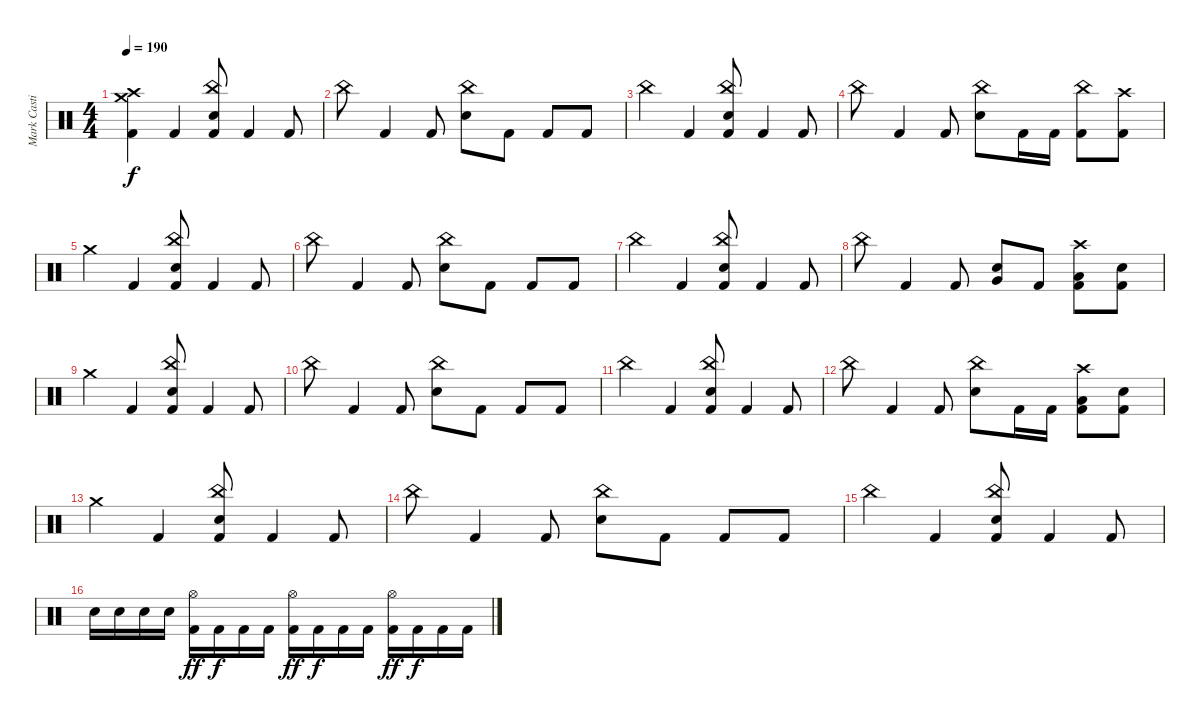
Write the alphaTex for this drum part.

\track ("Mark Castillo" "Mark Casti") {instrument percussion}
\staff {score}
\articulation defaults
\ts (4 4)
\tempo 190
\clef neutral
\ks c
("Crash high (hit)" "Crash medium (hit)" "Kick (hit) 2").4{dy f} "Kick (hit) 2".4 ("China (hit)" "Electric Snare (hit)" "Kick (hit) 2").8 "Kick (hit) 2".4 "Kick (hit) 2".8 |
"China (hit)".8 "Kick (hit) 2".4 "Kick (hit) 2".8 ("China (hit)" "Electric Snare (hit)").8 "Kick (hit) 2".8 "Kick (hit) 2".8 "Kick (hit) 2".8 |
"China (hit)".4 "Kick (hit) 2".4 ("China (hit)" "Electric Snare (hit)" "Kick (hit) 2").8 "Kick (hit) 2".4 "Kick (hit) 2".8 |
"China (hit)".8 "Kick (hit) 2".4 "Kick (hit) 2".8 ("China (hit)" "Electric Snare (hit)").8 "Kick (hit) 2".16 "Kick (hit) 2".16 ("China (hit)" "Kick (hit) 2").8 ("Crash high (hit)" "Kick (hit) 2").8 |
"Crash medium (hit)".4 "Kick (hit) 2".4 ("China (hit)" "Electric Snare (hit)" "Kick (hit) 2").8 "Kick (hit) 2".4 "Kick (hit) 2".8 |
"China (hit)".8 "Kick (hit) 2".4 "Kick (hit) 2".8 ("China (hit)" "Electric Snare (hit)").8 "Kick (hit) 2".8 "Kick (hit) 2".8 "Kick (hit) 2".8 |
"China (hit)".4 "Kick (hit) 2".4 ("China (hit)" "Electric Snare (hit)" "Kick (hit) 2").8 "Kick (hit) 2".4 "Kick (hit) 2".8 |
"China (hit)".8 "Kick (hit) 2".4 "Kick (hit) 2".8 ("Very Low Tom (hit)" "Electric Snare (hit)").8 "Kick (hit) 2".8 ("Crash high (hit)" "Low Tom (hit)" "Kick (hit) 2").8 ("Electric Snare (hit)" "Kick (hit) 2").8 |
"Crash medium (hit)".4 "Kick (hit) 2".4 ("China (hit)" "Electric Snare (hit)" "Kick (hit) 2").8 "Kick (hit) 2".4 "Kick (hit) 2".8 |
"China (hit)".8 "Kick (hit) 2".4 "Kick (hit) 2".8 ("China (hit)" "Electric Snare (hit)").8 "Kick (hit) 2".8 "Kick (hit) 2".8 "Kick (hit) 2".8 |
"China (hit)".4 "Kick (hit) 2".4 ("China (hit)" "Electric Snare (hit)" "Kick (hit) 2").8 "Kick (hit) 2".4 "Kick (hit) 2".8 |
"China (hit)".8 "Kick (hit) 2".4 "Kick (hit) 2".8 ("China (hit)" "Electric Snare (hit)").8 "Kick (hit) 2".16 "Kick (hit) 2".16 ("Crash high (hit)" "Low Tom (hit)" "Kick (hit) 2").8 ("Electric Snare (hit)" "Kick (hit) 2").8 |
"Crash medium (hit)".4 "Kick (hit) 2".4 ("China (hit)" "Electric Snare (hit)" "Kick (hit) 2").8 "Kick (hit) 2".4 "Kick (hit) 2".8 |
"China (hit)".8 "Kick (hit) 2".4 "Kick (hit) 2".8 ("China (hit)" "Electric Snare (hit)").8 "Kick (hit) 2".8 "Kick (hit) 2".8 "Kick (hit) 2".8 |
"China (hit)".4 "Kick (hit) 2".4 ("China (hit)" "Electric Snare (hit)" "Kick (hit) 2").8 "Kick (hit) 2".4 "Kick (hit) 2".8 |
"Electric Snare (hit)".16 "Electric Snare (hit)".16 "Electric Snare (hit)".16 "Electric Snare (hit)".16 ("Hi-Hat (open)" "Kick (hit) 2").16{dy ff} "Kick (hit) 2".16{dy f} "Kick (hit) 2".16 "Kick (hit) 2".16 ("Hi-Hat (open)" "Kick (hit) 2").16{dy ff} "Kick (hit) 2".16{dy f} "Kick (hit) 2".16 "Kick (hit) 2".16 ("Hi-Hat (open)" "Kick (hit) 2").16{dy ff} "Kick (hit) 2".16{dy f} "Kick (hit) 2".16 "Kick (hit) 2".16
